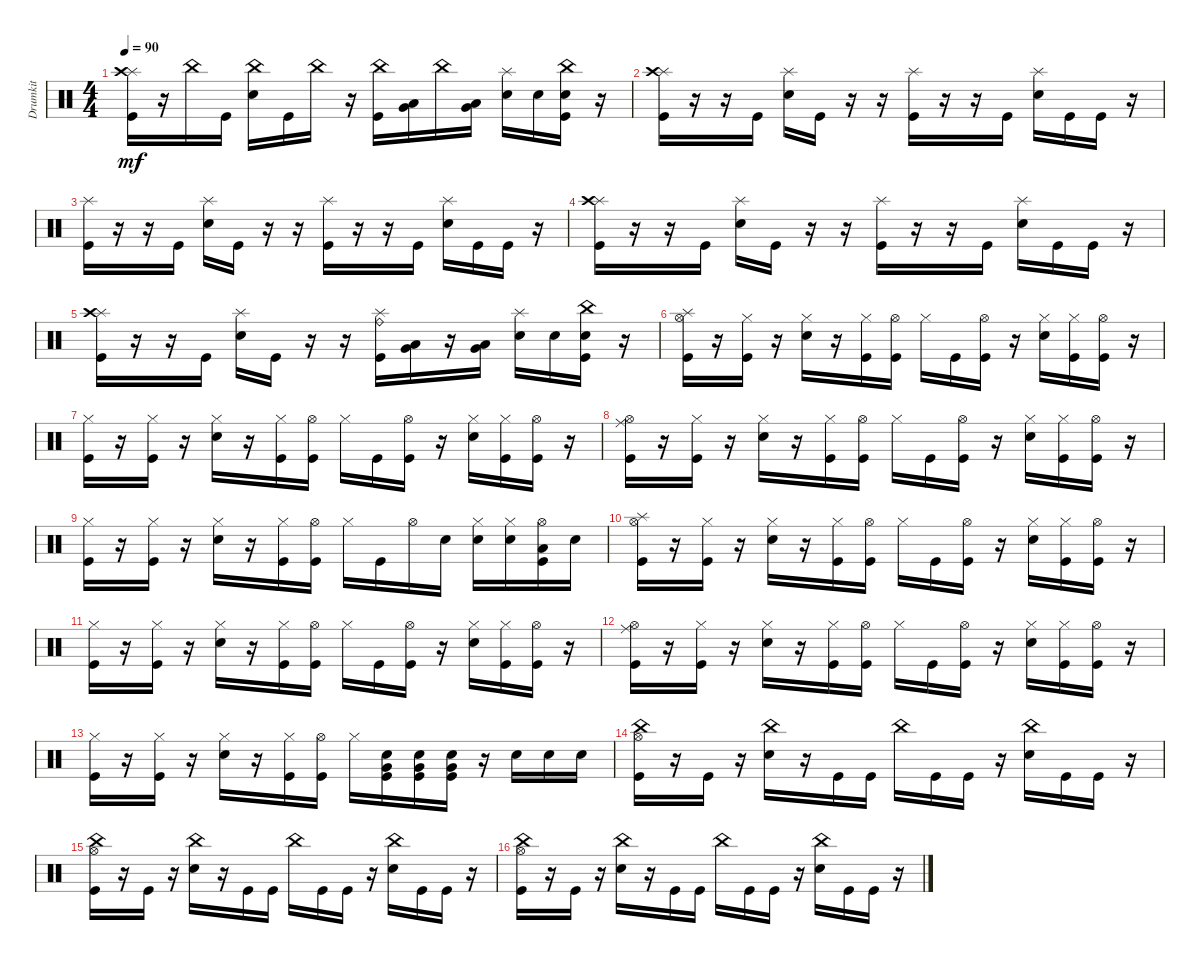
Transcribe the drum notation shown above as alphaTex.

\track ("Drumkit" "Drumkit") {instrument percussion}
\staff {score}
\articulation defaults
\ts (4 4)
\tempo 90
\clef neutral
\ks c
("Kick (hit)" "Splash (hit)" "Crash high (hit)").16{dy mf} r.16 "China (hit)".16 "Kick (hit)".16 ("Snare (hit) 2" "China (hit)").16 "Kick (hit)".16 "China (hit)".16 r.16 ("Kick (hit)" "China (hit)").16 ("Low Tom (hit)" "Very Low Tom (hit)").16 "China (hit)".16 ("Very Low Tom (hit)" "Low Floor Tom (hit)").16 ("Snare (hit) 2" "Splash (hit)").16 "Snare (hit) 2".16 ("Kick (hit)" "Snare (hit) 2" "China (hit)").16 r.16 |
("Kick (hit)" "Splash (hit)" "Crash high (hit)").16 r.16 r.16 "Kick (hit)".16 ("Snare (hit) 2" "Splash (hit)").16 "Kick (hit)".16 r.16 r.16 ("Kick (hit)" "Splash (hit)").16 r.16 r.16 "Kick (hit)".16 ("Snare (hit) 2" "Splash (hit)").16 "Kick (hit)".16 "Kick (hit)".16 r.16 |
("Kick (hit)" "Splash (hit)").16 r.16 r.16 "Kick (hit)".16 ("Snare (hit) 2" "Splash (hit)").16 "Kick (hit)".16 r.16 r.16 ("Kick (hit)" "Splash (hit)").16 r.16 r.16 "Kick (hit)".16 ("Snare (hit) 2" "Splash (hit)").16 "Kick (hit)".16 "Kick (hit)".16 r.16 |
("Kick (hit)" "Splash (hit)" "Crash high (hit)").16 r.16 r.16 "Kick (hit)".16 ("Snare (hit) 2" "Splash (hit)").16 "Kick (hit)".16 r.16 r.16 ("Kick (hit)" "Splash (hit)").16 r.16 r.16 "Kick (hit)".16 ("Snare (hit) 2" "Splash (hit)").16 "Kick (hit)".16 "Kick (hit)".16 r.16 |
("Kick (hit)" "Splash (hit)" "Crash high (hit)").16 r.16 r.16 "Kick (hit)".16 ("Snare (hit) 2" "Splash (hit)").16 "Kick (hit)".16 r.16 r.16 ("Kick (hit)" "Splash (hit)" "Ride (bell)").16 ("Low Tom (hit)" "Very Low Tom (hit)").16 r.16 ("Very Low Tom (hit)" "Low Floor Tom (hit)").16 ("Snare (hit) 2" "Splash (hit)").16 "Snare (hit) 2".16 ("Kick (hit)" "Snare (hit) 2" "China (hit)").16 r.16 |
("Kick (hit)" "Hi-Hat (open)" "Splash (hit)").16 r.16 ("Kick (hit)" "Hi-Hat (closed)").16 r.16 ("Snare (hit) 2" "Hi-Hat (closed)").16 r.16 ("Kick (hit)" "Hi-Hat (closed)").16 ("Kick (hit)" "Hi-Hat (open)").16 "Hi-Hat (closed)".16 "Kick (hit)".16 ("Kick (hit)" "Hi-Hat (open)").16 r.16 ("Snare (hit) 2" "Hi-Hat (closed)").16 ("Kick (hit)" "Hi-Hat (closed)").16 ("Kick (hit)" "Hi-Hat (open)").16 r.16 |
("Kick (hit)" "Hi-Hat (closed)").16 r.16 ("Kick (hit)" "Hi-Hat (closed)").16 r.16 ("Snare (hit) 2" "Hi-Hat (closed)").16 r.16 ("Kick (hit)" "Hi-Hat (closed)").16 ("Kick (hit)" "Hi-Hat (open)").16 "Hi-Hat (closed)".16 "Kick (hit)".16 ("Kick (hit)" "Hi-Hat (open)").16 r.16 ("Snare (hit) 2" "Hi-Hat (closed)").16 ("Kick (hit)" "Hi-Hat (closed)").16 ("Kick (hit)" "Hi-Hat (open)").16 r.16 |
("Kick (hit)" "Hi-Hat (open)" "Ride (middle)").16 r.16 ("Kick (hit)" "Hi-Hat (closed)").16 r.16 ("Snare (hit) 2" "Hi-Hat (closed)").16 r.16 ("Kick (hit)" "Hi-Hat (closed)").16 ("Kick (hit)" "Hi-Hat (open)").16 "Hi-Hat (closed)".16 "Kick (hit)".16 ("Kick (hit)" "Hi-Hat (open)").16 r.16 ("Snare (hit) 2" "Hi-Hat (closed)").16 ("Kick (hit)" "Hi-Hat (closed)").16 ("Kick (hit)" "Hi-Hat (open)").16 r.16 |
("Kick (hit)" "Hi-Hat (closed)").16 r.16 ("Kick (hit)" "Hi-Hat (closed)").16 r.16 ("Snare (hit) 2" "Hi-Hat (closed)").16 r.16 ("Kick (hit)" "Hi-Hat (closed)").16 ("Kick (hit)" "Hi-Hat (open)").16 "Hi-Hat (closed)".16 "Kick (hit)".16 "Hi-Hat (open)".16 "Snare (hit) 2".16 ("Hi-Hat (closed)" "Snare (hit) 2").16 ("Hi-Hat (closed)" "Snare (hit) 2").16 ("Kick (hit)" "Hi-Hat (open)" "Low Floor Tom (hit)").16 "Snare (hit) 2".16 |
("Kick (hit)" "Hi-Hat (open)" "Splash (hit)").16 r.16 ("Kick (hit)" "Hi-Hat (closed)").16 r.16 ("Snare (hit) 2" "Hi-Hat (closed)").16 r.16 ("Kick (hit)" "Hi-Hat (closed)").16 ("Kick (hit)" "Hi-Hat (open)").16 "Hi-Hat (closed)".16 "Kick (hit)".16 ("Kick (hit)" "Hi-Hat (open)").16 r.16 ("Snare (hit) 2" "Hi-Hat (closed)").16 ("Kick (hit)" "Hi-Hat (closed)").16 ("Kick (hit)" "Hi-Hat (open)").16 r.16 |
("Kick (hit)" "Hi-Hat (closed)").16 r.16 ("Kick (hit)" "Hi-Hat (closed)").16 r.16 ("Snare (hit) 2" "Hi-Hat (closed)").16 r.16 ("Kick (hit)" "Hi-Hat (closed)").16 ("Kick (hit)" "Hi-Hat (open)").16 "Hi-Hat (closed)".16 "Kick (hit)".16 ("Kick (hit)" "Hi-Hat (open)").16 r.16 ("Snare (hit) 2" "Hi-Hat (closed)").16 ("Kick (hit)" "Hi-Hat (closed)").16 ("Kick (hit)" "Hi-Hat (open)").16 r.16 |
("Kick (hit)" "Hi-Hat (open)" "Ride (middle)").16 r.16 ("Kick (hit)" "Hi-Hat (closed)").16 r.16 ("Snare (hit) 2" "Hi-Hat (closed)").16 r.16 ("Kick (hit)" "Hi-Hat (closed)").16 ("Kick (hit)" "Hi-Hat (open)").16 "Hi-Hat (closed)".16 "Kick (hit)".16 ("Kick (hit)" "Hi-Hat (open)").16 r.16 ("Snare (hit) 2" "Hi-Hat (closed)").16 ("Kick (hit)" "Hi-Hat (closed)").16 ("Kick (hit)" "Hi-Hat (open)").16 r.16 |
("Kick (hit)" "Hi-Hat (closed)").16 r.16 ("Kick (hit)" "Hi-Hat (closed)").16 r.16 ("Snare (hit) 2" "Hi-Hat (closed)").16 r.16 ("Kick (hit)" "Hi-Hat (closed)").16 ("Kick (hit)" "Hi-Hat (open)").16 "Hi-Hat (closed)".16 ("Very Low Tom (hit)" "Snare (hit) 2" "Kick (hit)").16 ("Very Low Tom (hit)" "Snare (hit) 2" "Kick (hit)").16 ("Very Low Tom (hit)" "Snare (hit) 2" "Kick (hit)").16 r.16 "Snare (hit) 2".16 "Snare (hit) 2".16 "Snare (hit) 2".16 |
("Kick (hit)" "Hi-Hat (open)" "China (hit)").16 r.16 "Kick (hit)".16 r.16 ("Snare (hit) 2" "China (hit)").16 r.16 "Kick (hit)".16 "Kick (hit)".16 "China (hit)".16 "Kick (hit)".16 "Kick (hit)".16 r.16 ("Snare (hit) 2" "China (hit)").16 "Kick (hit)".16 "Kick (hit)".16 r.16 |
("Kick (hit)" "Hi-Hat (open)" "China (hit)").16 r.16 "Kick (hit)".16 r.16 ("Snare (hit) 2" "China (hit)").16 r.16 "Kick (hit)".16 "Kick (hit)".16 "China (hit)".16 "Kick (hit)".16 "Kick (hit)".16 r.16 ("Snare (hit) 2" "China (hit)").16 "Kick (hit)".16 "Kick (hit)".16 r.16 |
("Kick (hit)" "Hi-Hat (open)" "China (hit)").16 r.16 "Kick (hit)".16 r.16 ("Snare (hit) 2" "China (hit)").16 r.16 "Kick (hit)".16 "Kick (hit)".16 "China (hit)".16 "Kick (hit)".16 "Kick (hit)".16 r.16 ("Snare (hit) 2" "China (hit)").16 "Kick (hit)".16 "Kick (hit)".16 r.16
